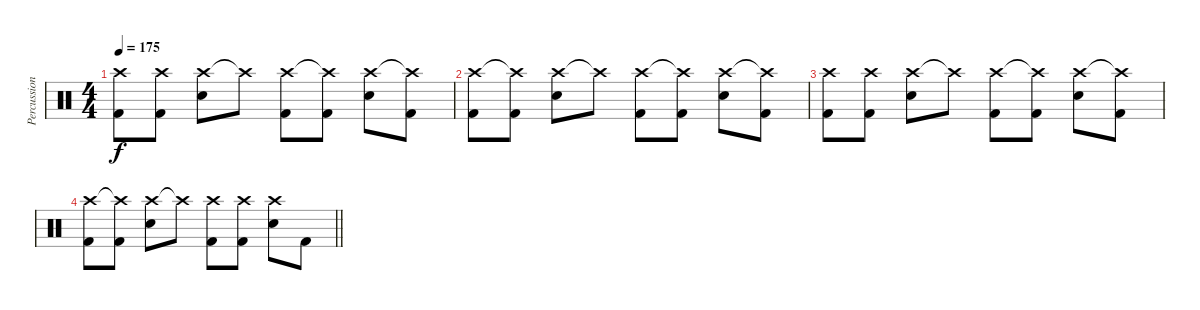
\track ("Percussion" "Percussion") {instrument percussion}
\staff {score}
\articulation defaults
\ts (4 4)
\tempo 175
\clef neutral
\ks c
("Crash high (hit)" "Kick (hit) 2").8{dy f} ("Crash high (hit)" "Kick (hit) 2").8 ("Crash high (hit)" "Snare (hit) 2").8 "Crash high (hit)"{t}.8 ("Crash high (hit)" "Kick (hit) 2").8 ("Crash high (hit)"{t} "Kick (hit) 2").8 ("Crash high (hit)" "Snare (hit) 2").8 ("Crash high (hit)"{t} "Kick (hit) 2").8 |
("Crash high (hit)" "Kick (hit) 2").8 ("Crash high (hit)"{t} "Kick (hit) 2").8 ("Crash high (hit)" "Snare (hit) 2").8 "Crash high (hit)"{t}.8 ("Crash high (hit)" "Kick (hit) 2").8 ("Crash high (hit)"{t} "Kick (hit) 2").8 ("Crash high (hit)" "Snare (hit) 2").8 ("Crash high (hit)"{t} "Kick (hit) 2").8 |
("Crash high (hit)" "Kick (hit) 2").8 ("Crash high (hit)" "Kick (hit) 2").8 ("Crash high (hit)" "Snare (hit) 2").8 "Crash high (hit)"{t}.8 ("Crash high (hit)" "Kick (hit) 2").8 ("Crash high (hit)"{t} "Kick (hit) 2").8 ("Crash high (hit)" "Snare (hit) 2").8 ("Crash high (hit)"{t} "Kick (hit) 2").8 |
\barLineRight lightlight
("Crash high (hit)" "Kick (hit) 2").8 ("Crash high (hit)"{t} "Kick (hit) 2").8 ("Crash high (hit)" "Snare (hit) 2").8 "Crash high (hit)"{t}.8 ("Crash high (hit)" "Kick (hit) 2").8 ("Crash high (hit)" "Kick (hit) 2").8 ("Crash high (hit)" "Snare (hit) 2").8 "Kick (hit) 2".8
